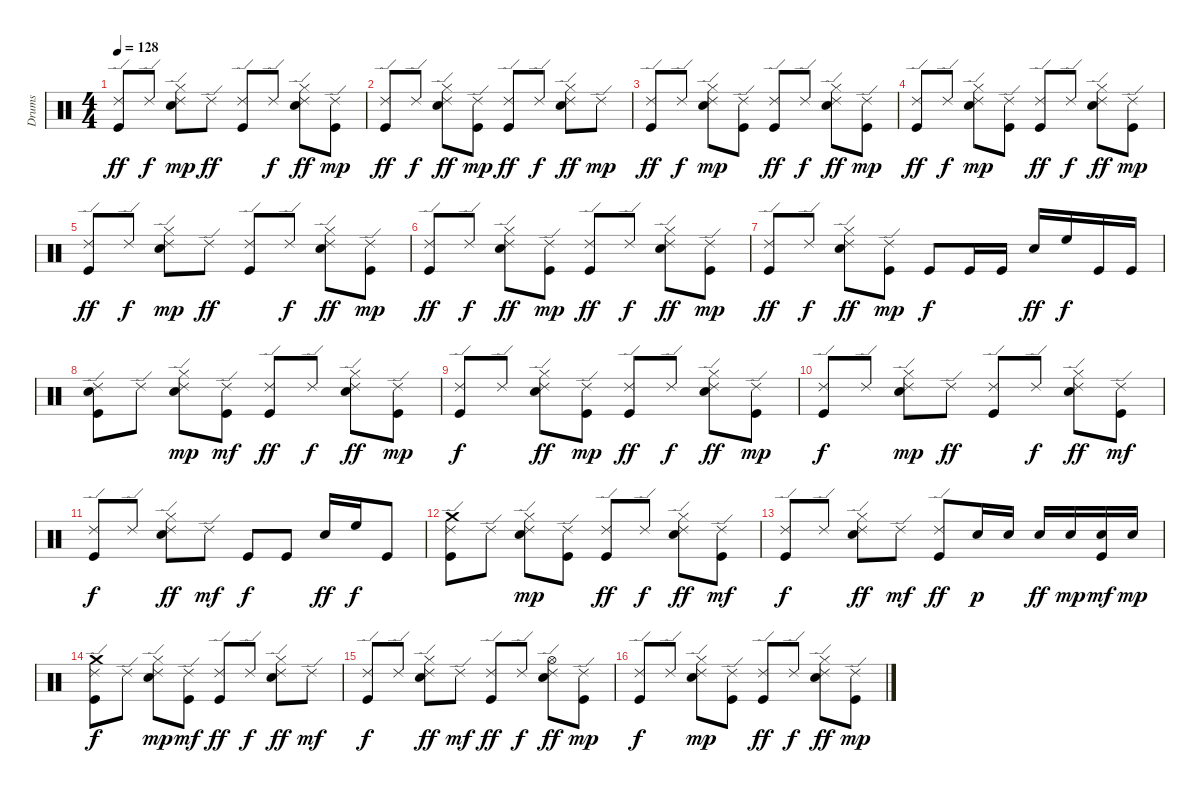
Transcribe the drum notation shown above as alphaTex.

\track ("Drums" "Drums") {instrument percussion}
\staff {score}
\articulation defaults
\ts (4 4)
\tempo 128
\clef neutral
\ks c
("Ride (edge) 2" "Kick (hit)").8{dy ff} "Ride (edge) 2".8{dy f} ("Electric Snare (hit)" "Hi-Hat (closed)" "Ride (edge) 2").8{dy mp} "Ride (edge) 2".8{dy ff} ("Ride (edge) 2" "Kick (hit)").8 "Ride (edge) 2".8{dy f} ("Electric Snare (hit)" "Hi-Hat (closed)" "Ride (edge) 2").8{dy ff} ("Ride (edge) 2" "Kick (hit)").8{dy mp} |
("Ride (edge) 2" "Kick (hit)").8{dy ff} "Ride (edge) 2".8{dy f} ("Electric Snare (hit)" "Hi-Hat (closed)" "Ride (edge) 2").8{dy ff} ("Ride (edge) 2" "Kick (hit)").8{dy mp} ("Ride (edge) 2" "Kick (hit)").8{dy ff} "Ride (edge) 2".8{dy f} ("Electric Snare (hit)" "Hi-Hat (closed)" "Ride (edge) 2").8{dy ff} "Ride (edge) 2".8{dy mp} |
("Ride (edge) 2" "Kick (hit)").8{dy ff} "Ride (edge) 2".8{dy f} ("Electric Snare (hit)" "Hi-Hat (closed)" "Ride (edge) 2").8{dy mp} ("Ride (edge) 2" "Kick (hit)").8 ("Ride (edge) 2" "Kick (hit)").8{dy ff} "Ride (edge) 2".8{dy f} ("Electric Snare (hit)" "Hi-Hat (closed)" "Ride (edge) 2").8{dy ff} ("Ride (edge) 2" "Kick (hit)").8{dy mp} |
("Ride (edge) 2" "Kick (hit)").8{dy ff} "Ride (edge) 2".8{dy f} ("Electric Snare (hit)" "Hi-Hat (closed)" "Ride (edge) 2").8{dy mp} ("Ride (edge) 2" "Kick (hit)").8 ("Ride (edge) 2" "Kick (hit)").8{dy ff} "Ride (edge) 2".8{dy f} ("Electric Snare (hit)" "Hi-Hat (closed)" "Ride (edge) 2").8{dy ff} ("Ride (edge) 2" "Kick (hit)").8{dy mp} |
("Ride (edge) 2" "Kick (hit)").8{dy ff} "Ride (edge) 2".8{dy f} ("Electric Snare (hit)" "Hi-Hat (closed)" "Ride (edge) 2").8{dy mp} "Ride (edge) 2".8{dy ff} ("Ride (edge) 2" "Kick (hit)").8 "Ride (edge) 2".8{dy f} ("Electric Snare (hit)" "Hi-Hat (closed)" "Ride (edge) 2").8{dy ff} ("Ride (edge) 2" "Kick (hit)").8{dy mp} |
("Ride (edge) 2" "Kick (hit)").8{dy ff} "Ride (edge) 2".8{dy f} ("Electric Snare (hit)" "Hi-Hat (closed)" "Ride (edge) 2").8{dy ff} ("Ride (edge) 2" "Kick (hit)").8{dy mp} ("Ride (edge) 2" "Kick (hit)").8{dy ff} "Ride (edge) 2".8{dy f} ("Electric Snare (hit)" "Hi-Hat (closed)" "Ride (edge) 2").8{dy ff} ("Ride (edge) 2" "Kick (hit)").8{dy mp} |
("Ride (edge) 2" "Kick (hit)").8{dy ff} "Ride (edge) 2".8{dy f} ("Electric Snare (hit)" "Hi-Hat (closed)" "Ride (edge) 2").8{dy ff} ("Ride (edge) 2" "Kick (hit)").8{dy mp} "Kick (hit)".8{dy f} "Kick (hit)".16 "Kick (hit)".16 "Electric Snare (hit)".16{dy ff} "High Floor Tom (hit)".16{dy f} "Kick (hit)".16 "Kick (hit)".16 |
("Snare (hit)" "Ride (edge) 2" "Kick (hit)").8 "Ride (edge) 2".8 ("Electric Snare (hit)" "Hi-Hat (closed)" "Ride (edge) 2").8{dy mp} ("Ride (edge) 2" "Kick (hit)").8{dy mf} ("Ride (edge) 2" "Kick (hit)").8{dy ff} "Ride (edge) 2".8{dy f} ("Electric Snare (hit)" "Hi-Hat (closed)" "Ride (edge) 2").8{dy ff} ("Ride (edge) 2" "Kick (hit)").8{dy mp} |
("Ride (edge) 2" "Kick (hit)").8{dy f} "Ride (edge) 2".8 ("Electric Snare (hit)" "Hi-Hat (closed)" "Ride (edge) 2").8{dy ff} ("Ride (edge) 2" "Kick (hit)").8{dy mp} ("Ride (edge) 2" "Kick (hit)").8{dy ff} "Ride (edge) 2".8{dy f} ("Electric Snare (hit)" "Hi-Hat (closed)" "Ride (edge) 2").8{dy ff} ("Ride (edge) 2" "Kick (hit)").8{dy mp} |
("Ride (edge) 2" "Kick (hit)").8{dy f} "Ride (edge) 2".8 ("Electric Snare (hit)" "Hi-Hat (closed)" "Ride (edge) 2").8{dy mp} "Ride (edge) 2".8{dy ff} ("Ride (edge) 2" "Kick (hit)").8 "Ride (edge) 2".8{dy f} ("Electric Snare (hit)" "Hi-Hat (closed)" "Ride (edge) 2").8{dy ff} ("Ride (edge) 2" "Kick (hit)").8{dy mf} |
("Ride (edge) 2" "Kick (hit)").8{dy f} "Ride (edge) 2".8 ("Electric Snare (hit)" "Hi-Hat (closed)" "Ride (edge) 2").8{dy ff} "Ride (edge) 2".8{dy mf} "Kick (hit)".8{dy f} "Kick (hit)".8 "Electric Snare (hit)".16{dy ff} "High Floor Tom (hit)".16{dy f} "Kick (hit)".8 |
("Crash medium (hit)" "Ride (edge) 2" "Kick (hit)").8 "Ride (edge) 2".8 ("Electric Snare (hit)" "Hi-Hat (closed)" "Ride (edge) 2").8{dy mp} ("Ride (edge) 2" "Kick (hit)").8 ("Ride (edge) 2" "Kick (hit)").8{dy ff} "Ride (edge) 2".8{dy f} ("Electric Snare (hit)" "Hi-Hat (closed)" "Ride (edge) 2").8{dy ff} ("Ride (edge) 2" "Kick (hit)").8{dy mf} |
("Ride (edge) 2" "Kick (hit)").8{dy f} "Ride (edge) 2".8 ("Electric Snare (hit)" "Hi-Hat (closed)" "Ride (edge) 2").8{dy ff} "Ride (edge) 2".8{dy mf} ("Ride (edge) 2" "Kick (hit)").8{dy ff} "Electric Snare (hit)".16{dy p} "Electric Snare (hit)".16 "Electric Snare (hit)".16{dy ff} "Electric Snare (hit)".16{dy mp} ("Electric Snare (hit)" "Kick (hit)").16{dy mf} "Electric Snare (hit)".16{dy mp} |
("Crash medium (hit)" "Ride (edge) 2" "Kick (hit)").8{dy f} "Ride (edge) 2".8 ("Electric Snare (hit)" "Hi-Hat (closed)" "Ride (edge) 2").8{dy mp} ("Ride (edge) 2" "Kick (hit)").8{dy mf} ("Ride (edge) 2" "Kick (hit)").8{dy ff} "Ride (edge) 2".8{dy f} ("Electric Snare (hit)" "Hi-Hat (closed)" "Ride (edge) 2").8{dy ff} "Ride (edge) 2".8{dy mf} |
("Ride (edge) 2" "Kick (hit)").8{dy f} "Ride (edge) 2".8 ("Electric Snare (hit)" "Hi-Hat (closed)" "Ride (edge) 2").8{dy ff} "Ride (edge) 2".8{dy mf} ("Ride (edge) 2" "Kick (hit)").8{dy ff} "Ride (edge) 2".8{dy f} ("Electric Snare (hit)" "Hi-Hat (open)" "Ride (edge) 2").8{dy ff} ("Ride (edge) 2" "Kick (hit)").8{dy mp} |
("Ride (edge) 2" "Kick (hit)").8{dy f} "Ride (edge) 2".8 ("Electric Snare (hit)" "Hi-Hat (closed)" "Ride (edge) 2").8{dy mp} ("Ride (edge) 2" "Kick (hit)").8 ("Ride (edge) 2" "Kick (hit)").8{dy ff} "Ride (edge) 2".8{dy f} ("Electric Snare (hit)" "Hi-Hat (closed)" "Ride (edge) 2").8{dy ff} ("Ride (edge) 2" "Kick (hit)").8{dy mp}
